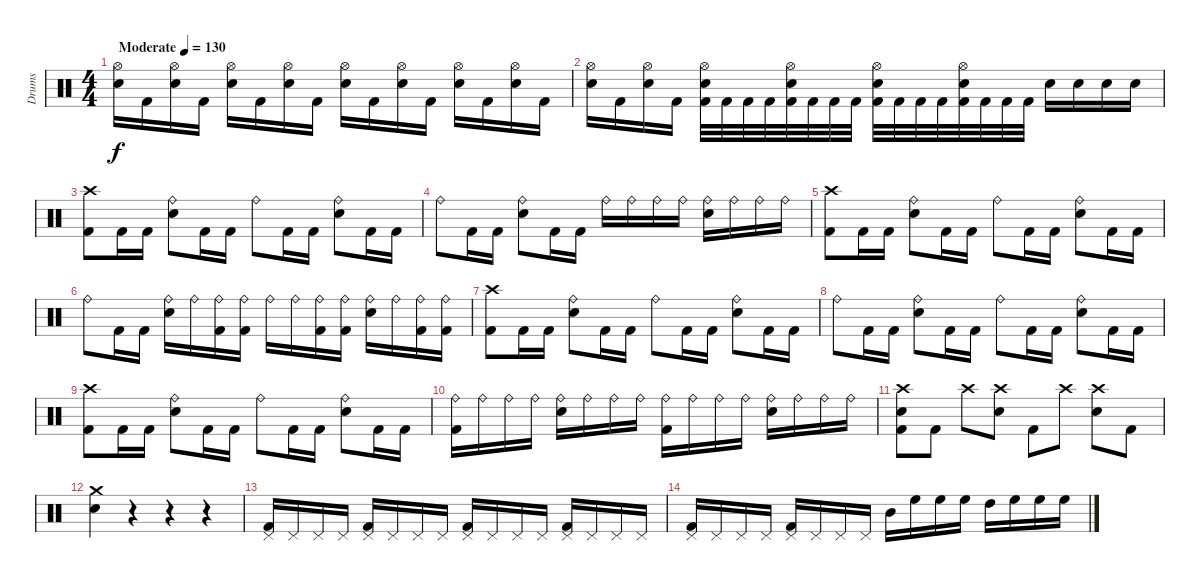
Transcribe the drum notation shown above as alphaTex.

\track ("Drums" "Drums") {instrument percussion}
\staff {score}
\articulation defaults
\ts (4 4)
\tempo (130 "Moderate")
\clef neutral
\ks c
("Hi-Hat (open)" "Electric Snare (hit)").16{dy f} "Kick (hit) 2".16 ("Hi-Hat (open)" "Electric Snare (hit)").16 "Kick (hit) 2".16 ("Hi-Hat (open)" "Electric Snare (hit)").16 "Kick (hit) 2".16 ("Hi-Hat (open)" "Electric Snare (hit)").16 "Kick (hit) 2".16 ("Hi-Hat (open)" "Electric Snare (hit)").16 "Kick (hit) 2".16 ("Hi-Hat (open)" "Electric Snare (hit)").16 "Kick (hit) 2".16 ("Hi-Hat (open)" "Electric Snare (hit)").16 "Kick (hit) 2".16 ("Hi-Hat (open)" "Electric Snare (hit)").16 "Kick (hit) 2".16 |
("Hi-Hat (open)" "Electric Snare (hit)").16 "Kick (hit) 2".16 ("Hi-Hat (open)" "Electric Snare (hit)").16 "Kick (hit) 2".16 ("Hi-Hat (open)" "Electric Snare (hit)" "Kick (hit) 2").32 "Kick (hit) 2".32 "Kick (hit) 2".32 "Kick (hit) 2".32 ("Hi-Hat (open)" "Electric Snare (hit)" "Kick (hit) 2").32 "Kick (hit) 2".32 "Kick (hit) 2".32 "Kick (hit) 2".32 ("Hi-Hat (open)" "Electric Snare (hit)" "Kick (hit) 2").32 "Kick (hit) 2".32 "Kick (hit) 2".32 "Kick (hit) 2".32 ("Hi-Hat (open)" "Electric Snare (hit)" "Kick (hit) 2").32 "Kick (hit) 2".32 "Kick (hit) 2".32 "Kick (hit) 2".32 "Electric Snare (hit)".16 "Electric Snare (hit)".16 "Electric Snare (hit)".16 "Electric Snare (hit)".16 |
("Crash high (hit)" "Kick (hit) 2").8 "Kick (hit) 2".16 "Kick (hit) 2".16 ("Ride (bell)" "Electric Snare (hit)").8 "Kick (hit) 2".16 "Kick (hit) 2".16 "Ride (bell)".8 "Kick (hit) 2".16 "Kick (hit) 2".16 ("Ride (bell)" "Electric Snare (hit)").8 "Kick (hit) 2".16 "Kick (hit) 2".16 |
"Ride (bell)".8 "Kick (hit) 2".16 "Kick (hit) 2".16 ("Ride (bell)" "Electric Snare (hit)").8 "Kick (hit) 2".16 "Kick (hit) 2".16 "Ride (bell)".16 "Ride (bell)".16 "Ride (bell)".16 "Ride (bell)".16 ("Ride (bell)" "Electric Snare (hit)").16 "Ride (bell)".16 "Ride (bell)".16 "Ride (bell)".16 |
("Crash high (hit)" "Kick (hit) 2").8 "Kick (hit) 2".16 "Kick (hit) 2".16 ("Ride (bell)" "Electric Snare (hit)").8 "Kick (hit) 2".16 "Kick (hit) 2".16 "Ride (bell)".8 "Kick (hit) 2".16 "Kick (hit) 2".16 ("Ride (bell)" "Electric Snare (hit)").8 "Kick (hit) 2".16 "Kick (hit) 2".16 |
"Ride (bell)".8 "Kick (hit) 2".16 "Kick (hit) 2".16 ("Ride (bell)" "Electric Snare (hit)").16 "Ride (bell)".16 ("Ride (bell)" "Kick (hit) 2").16 ("Ride (bell)" "Kick (hit) 2").16 "Ride (bell)".16 "Ride (bell)".16 ("Ride (bell)" "Kick (hit) 2").16 ("Ride (bell)" "Kick (hit) 2").16 ("Ride (bell)" "Electric Snare (hit)").16 "Ride (bell)".16 ("Ride (bell)" "Kick (hit) 2").16 ("Ride (bell)" "Kick (hit) 2").16 |
("Crash high (hit)" "Kick (hit) 2").8 "Kick (hit) 2".16 "Kick (hit) 2".16 ("Ride (bell)" "Electric Snare (hit)").8 "Kick (hit) 2".16 "Kick (hit) 2".16 "Ride (bell)".8 "Kick (hit) 2".16 "Kick (hit) 2".16 ("Ride (bell)" "Electric Snare (hit)").8 "Kick (hit) 2".16 "Kick (hit) 2".16 |
"Ride (bell)".8 "Kick (hit) 2".16 "Kick (hit) 2".16 ("Ride (bell)" "Electric Snare (hit)").8 "Kick (hit) 2".16 "Kick (hit) 2".16 "Ride (bell)".8 "Kick (hit) 2".16 "Kick (hit) 2".16 ("Ride (bell)" "Electric Snare (hit)").8 "Kick (hit) 2".16 "Kick (hit) 2".16 |
("Crash high (hit)" "Kick (hit) 2").8 "Kick (hit) 2".16 "Kick (hit) 2".16 ("Ride (bell)" "Electric Snare (hit)").8 "Kick (hit) 2".16 "Kick (hit) 2".16 "Ride (bell)".8 "Kick (hit) 2".16 "Kick (hit) 2".16 ("Ride (bell)" "Electric Snare (hit)").8 "Kick (hit) 2".16 "Kick (hit) 2".16 |
("Ride (bell)" "Kick (hit) 2").16 "Ride (bell)".16 "Ride (bell)".16 "Ride (bell)".16 ("Ride (bell)" "Electric Snare (hit)").16 "Ride (bell)".16 "Ride (bell)".16 "Ride (bell)".16 ("Ride (bell)" "Kick (hit) 2").16 "Ride (bell)".16 "Ride (bell)".16 "Ride (bell)".16 ("Ride (bell)" "Electric Snare (hit)").16 "Ride (bell)".16 "Ride (bell)".16 "Ride (bell)".16 |
("Crash high (hit)" "Electric Snare (hit)" "Kick (hit) 2").8 "Kick (hit) 2".8 "Crash high (hit)".8 ("Crash high (hit)" "Electric Snare (hit)").8 "Kick (hit) 2".8 "Crash high (hit)".8 ("Crash high (hit)" "Electric Snare (hit)").8 "Kick (hit) 2".8 |
("Electric Snare (hit)" "Crash medium (hit)").4 r.4 r.4 r.4 |
("Pedal Hi-Hat (hit)" "Kick (hit) 2").16 "Pedal Hi-Hat (hit)".16 "Pedal Hi-Hat (hit)".16 "Pedal Hi-Hat (hit)".16 ("Pedal Hi-Hat (hit)" "Kick (hit) 2").16 "Pedal Hi-Hat (hit)".16 "Pedal Hi-Hat (hit)".16 "Pedal Hi-Hat (hit)".16 ("Pedal Hi-Hat (hit)" "Kick (hit) 2").16 "Pedal Hi-Hat (hit)".16 "Pedal Hi-Hat (hit)".16 "Pedal Hi-Hat (hit)".16 ("Pedal Hi-Hat (hit)" "Kick (hit) 2").16 "Pedal Hi-Hat (hit)".16 "Pedal Hi-Hat (hit)".16 "Pedal Hi-Hat (hit)".16 |
("Pedal Hi-Hat (hit)" "Kick (hit) 2").16 "Pedal Hi-Hat (hit)".16 "Pedal Hi-Hat (hit)".16 "Pedal Hi-Hat (hit)".16 ("Pedal Hi-Hat (hit)" "Kick (hit) 2").16 "Pedal Hi-Hat (hit)".16 "Pedal Hi-Hat (hit)".16 "Pedal Hi-Hat (hit)".16 "Mid Tom (hit)".16 "High Floor Tom (hit)".16 "High Floor Tom (hit)".16 "High Floor Tom (hit)".16 "High Tom (hit)".16 "High Floor Tom (hit)".16 "High Floor Tom (hit)".16 "High Floor Tom (hit)".16
